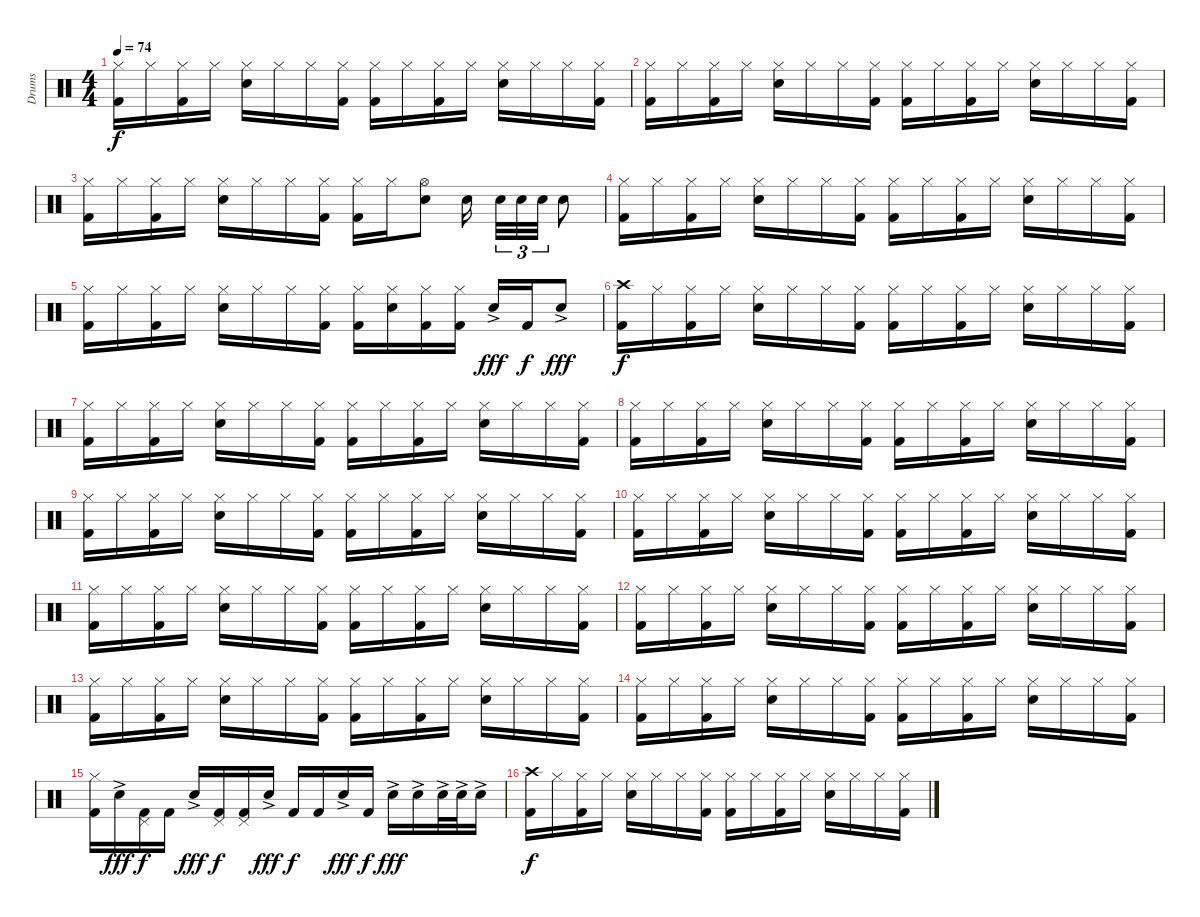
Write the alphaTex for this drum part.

\track ("Drums" "Drums") {instrument percussion}
\staff {score}
\articulation defaults
\ts (4 4)
\tempo 74
\clef neutral
\ks aminor
("Hi-Hat (closed)" "Kick (hit) 2").16{dy f} "Hi-Hat (closed)".16 ("Hi-Hat (closed)" "Kick (hit) 2").16 "Hi-Hat (closed)".16 ("Hi-Hat (closed)" "Snare (hit) 2").16 "Hi-Hat (closed)".16 "Hi-Hat (closed)".16 ("Hi-Hat (closed)" "Kick (hit) 2").16 ("Hi-Hat (closed)" "Kick (hit) 2").16 "Hi-Hat (closed)".16 ("Hi-Hat (closed)" "Kick (hit) 2").16 "Hi-Hat (closed)".16 ("Hi-Hat (closed)" "Snare (hit) 2").16 "Hi-Hat (closed)".16 "Hi-Hat (closed)".16 ("Hi-Hat (closed)" "Kick (hit) 2").16 |
("Hi-Hat (closed)" "Kick (hit) 2").16 "Hi-Hat (closed)".16 ("Hi-Hat (closed)" "Kick (hit) 2").16 "Hi-Hat (closed)".16 ("Hi-Hat (closed)" "Snare (hit) 2").16 "Hi-Hat (closed)".16 "Hi-Hat (closed)".16 ("Hi-Hat (closed)" "Kick (hit) 2").16 ("Hi-Hat (closed)" "Kick (hit) 2").16 "Hi-Hat (closed)".16 ("Hi-Hat (closed)" "Kick (hit) 2").16 "Hi-Hat (closed)".16 ("Hi-Hat (closed)" "Snare (hit) 2").16 "Hi-Hat (closed)".16 "Hi-Hat (closed)".16 ("Hi-Hat (closed)" "Kick (hit) 2").16 |
("Hi-Hat (closed)" "Kick (hit) 2").16 "Hi-Hat (closed)".16 ("Hi-Hat (closed)" "Kick (hit) 2").16 "Hi-Hat (closed)".16 ("Hi-Hat (closed)" "Snare (hit) 2").16 "Hi-Hat (closed)".16 "Hi-Hat (closed)".16 ("Hi-Hat (closed)" "Kick (hit) 2").16 ("Hi-Hat (closed)" "Kick (hit) 2").16 "Hi-Hat (closed)".16 ("Hi-Hat (open)" "Snare (hit) 2").8 "Snare (hit) 2".16 "Snare (hit) 2".32{tu (3 2)} "Snare (hit) 2".32{tu (3 2)} "Snare (hit) 2".32{tu (3 2)} "Snare (hit) 2".8 |
("Hi-Hat (closed)" "Kick (hit) 2").16 "Hi-Hat (closed)".16 ("Hi-Hat (closed)" "Kick (hit) 2").16 "Hi-Hat (closed)".16 ("Hi-Hat (closed)" "Snare (hit) 2").16 "Hi-Hat (closed)".16 "Hi-Hat (closed)".16 ("Hi-Hat (closed)" "Kick (hit) 2").16 ("Hi-Hat (closed)" "Kick (hit) 2").16 "Hi-Hat (closed)".16 ("Hi-Hat (closed)" "Kick (hit) 2").16 "Hi-Hat (closed)".16 ("Hi-Hat (closed)" "Snare (hit) 2").16 "Hi-Hat (closed)".16 "Hi-Hat (closed)".16 ("Hi-Hat (closed)" "Kick (hit) 2").16 |
("Hi-Hat (closed)" "Kick (hit) 2").16 "Hi-Hat (closed)".16 ("Hi-Hat (closed)" "Kick (hit) 2").16 "Hi-Hat (closed)".16 ("Hi-Hat (closed)" "Snare (hit) 2").16 "Hi-Hat (closed)".16 "Hi-Hat (closed)".16 ("Hi-Hat (closed)" "Kick (hit) 2").16 ("Hi-Hat (closed)" "Kick (hit) 2").16 ("Hi-Hat (closed)" "Snare (hit) 2").16 ("Hi-Hat (closed)" "Kick (hit) 2").16 ("Hi-Hat (closed)" "Kick (hit) 2").16 "Snare (hit) 2"{ac}.16{dy fff} "Kick (hit) 2".16{dy f} "Snare (hit) 2"{ac}.8{dy fff} |
("Crash high (hit)" "Kick (hit) 2").16{dy f} "Hi-Hat (closed)".16 ("Hi-Hat (closed)" "Kick (hit) 2").16 "Hi-Hat (closed)".16 ("Hi-Hat (closed)" "Snare (hit) 2").16 "Hi-Hat (closed)".16 "Hi-Hat (closed)".16 ("Hi-Hat (closed)" "Kick (hit) 2").16 ("Hi-Hat (closed)" "Kick (hit) 2").16 "Hi-Hat (closed)".16 ("Hi-Hat (closed)" "Kick (hit) 2").16 "Hi-Hat (closed)".16 ("Hi-Hat (closed)" "Snare (hit) 2").16 "Hi-Hat (closed)".16 "Hi-Hat (closed)".16 ("Hi-Hat (closed)" "Kick (hit) 2").16 |
("Hi-Hat (closed)" "Kick (hit) 2").16 "Hi-Hat (closed)".16 ("Hi-Hat (closed)" "Kick (hit) 2").16 "Hi-Hat (closed)".16 ("Hi-Hat (closed)" "Snare (hit) 2").16 "Hi-Hat (closed)".16 "Hi-Hat (closed)".16 ("Hi-Hat (closed)" "Kick (hit) 2").16 ("Hi-Hat (closed)" "Kick (hit) 2").16 "Hi-Hat (closed)".16 ("Hi-Hat (closed)" "Kick (hit) 2").16 "Hi-Hat (closed)".16 ("Hi-Hat (closed)" "Snare (hit) 2").16 "Hi-Hat (closed)".16 "Hi-Hat (closed)".16 ("Hi-Hat (closed)" "Kick (hit) 2").16 |
("Hi-Hat (closed)" "Kick (hit) 2").16 "Hi-Hat (closed)".16 ("Hi-Hat (closed)" "Kick (hit) 2").16 "Hi-Hat (closed)".16 ("Hi-Hat (closed)" "Snare (hit) 2").16 "Hi-Hat (closed)".16 "Hi-Hat (closed)".16 ("Hi-Hat (closed)" "Kick (hit) 2").16 ("Hi-Hat (closed)" "Kick (hit) 2").16 "Hi-Hat (closed)".16 ("Hi-Hat (closed)" "Kick (hit) 2").16 "Hi-Hat (closed)".16 ("Hi-Hat (closed)" "Snare (hit) 2").16 "Hi-Hat (closed)".16 "Hi-Hat (closed)".16 ("Hi-Hat (closed)" "Kick (hit) 2").16 |
("Hi-Hat (closed)" "Kick (hit) 2").16 "Hi-Hat (closed)".16 ("Hi-Hat (closed)" "Kick (hit) 2").16 "Hi-Hat (closed)".16 ("Hi-Hat (closed)" "Snare (hit) 2").16 "Hi-Hat (closed)".16 "Hi-Hat (closed)".16 ("Hi-Hat (closed)" "Kick (hit) 2").16 ("Hi-Hat (closed)" "Kick (hit) 2").16 "Hi-Hat (closed)".16 ("Hi-Hat (closed)" "Kick (hit) 2").16 "Hi-Hat (closed)".16 ("Hi-Hat (closed)" "Snare (hit) 2").16 "Hi-Hat (closed)".16 "Hi-Hat (closed)".16 ("Hi-Hat (closed)" "Kick (hit) 2").16 |
("Hi-Hat (closed)" "Kick (hit) 2").16 "Hi-Hat (closed)".16 ("Hi-Hat (closed)" "Kick (hit) 2").16 "Hi-Hat (closed)".16 ("Hi-Hat (closed)" "Snare (hit) 2").16 "Hi-Hat (closed)".16 "Hi-Hat (closed)".16 ("Hi-Hat (closed)" "Kick (hit) 2").16 ("Hi-Hat (closed)" "Kick (hit) 2").16 "Hi-Hat (closed)".16 ("Hi-Hat (closed)" "Kick (hit) 2").16 "Hi-Hat (closed)".16 ("Hi-Hat (closed)" "Snare (hit) 2").16 "Hi-Hat (closed)".16 "Hi-Hat (closed)".16 ("Hi-Hat (closed)" "Kick (hit) 2").16 |
("Hi-Hat (closed)" "Kick (hit) 2").16 "Hi-Hat (closed)".16 ("Hi-Hat (closed)" "Kick (hit) 2").16 "Hi-Hat (closed)".16 ("Hi-Hat (closed)" "Snare (hit) 2").16 "Hi-Hat (closed)".16 "Hi-Hat (closed)".16 ("Hi-Hat (closed)" "Kick (hit) 2").16 ("Hi-Hat (closed)" "Kick (hit) 2").16 "Hi-Hat (closed)".16 ("Hi-Hat (closed)" "Kick (hit) 2").16 "Hi-Hat (closed)".16 ("Hi-Hat (closed)" "Snare (hit) 2").16 "Hi-Hat (closed)".16 "Hi-Hat (closed)".16 ("Hi-Hat (closed)" "Kick (hit) 2").16 |
("Hi-Hat (closed)" "Kick (hit) 2").16 "Hi-Hat (closed)".16 ("Hi-Hat (closed)" "Kick (hit) 2").16 "Hi-Hat (closed)".16 ("Hi-Hat (closed)" "Snare (hit) 2").16 "Hi-Hat (closed)".16 "Hi-Hat (closed)".16 ("Hi-Hat (closed)" "Kick (hit) 2").16 ("Hi-Hat (closed)" "Kick (hit) 2").16 "Hi-Hat (closed)".16 ("Hi-Hat (closed)" "Kick (hit) 2").16 "Hi-Hat (closed)".16 ("Hi-Hat (closed)" "Snare (hit) 2").16 "Hi-Hat (closed)".16 "Hi-Hat (closed)".16 ("Hi-Hat (closed)" "Kick (hit) 2").16 |
("Hi-Hat (closed)" "Kick (hit) 2").16 "Hi-Hat (closed)".16 ("Hi-Hat (closed)" "Kick (hit) 2").16 "Hi-Hat (closed)".16 ("Hi-Hat (closed)" "Snare (hit) 2").16 "Hi-Hat (closed)".16 "Hi-Hat (closed)".16 ("Hi-Hat (closed)" "Kick (hit) 2").16 ("Hi-Hat (closed)" "Kick (hit) 2").16 "Hi-Hat (closed)".16 ("Hi-Hat (closed)" "Kick (hit) 2").16 "Hi-Hat (closed)".16 ("Hi-Hat (closed)" "Snare (hit) 2").16 "Hi-Hat (closed)".16 "Hi-Hat (closed)".16 ("Hi-Hat (closed)" "Kick (hit) 2").16 |
("Hi-Hat (closed)" "Kick (hit) 2").16 "Hi-Hat (closed)".16 ("Hi-Hat (closed)" "Kick (hit) 2").16 "Hi-Hat (closed)".16 ("Hi-Hat (closed)" "Snare (hit) 2").16 "Hi-Hat (closed)".16 "Hi-Hat (closed)".16 ("Hi-Hat (closed)" "Kick (hit) 2").16 ("Hi-Hat (closed)" "Kick (hit) 2").16 "Hi-Hat (closed)".16 ("Hi-Hat (closed)" "Kick (hit) 2").16 "Hi-Hat (closed)".16 ("Hi-Hat (closed)" "Snare (hit) 2").16 "Hi-Hat (closed)".16 "Hi-Hat (closed)".16 ("Hi-Hat (closed)" "Kick (hit) 2").16 |
("Hi-Hat (closed)" "Kick (hit) 2").16 "Snare (hit) 2"{ac}.16{dy fff} ("Pedal Hi-Hat (hit)" "Kick (hit) 2").16{dy f} "Kick (hit) 2".16 "Snare (hit) 2"{ac}.16{dy fff} ("Pedal Hi-Hat (hit)" "Kick (hit) 2").16{dy f} ("Pedal Hi-Hat (hit)" "Kick (hit) 2").16 "Snare (hit) 2"{ac}.16{dy fff} "Kick (hit) 2".16{dy f} "Kick (hit) 2".16 "Snare (hit) 2"{ac}.16{dy fff} "Kick (hit) 2".16{dy f} "Snare (hit) 2"{ac}.16{dy fff} "Snare (hit) 2"{ac}.16 "Snare (hit) 2"{ac}.32 "Snare (hit) 2"{ac}.32 "Snare (hit) 2"{ac}.16 |
("Crash high (hit)" "Kick (hit) 2").16{dy f} "Hi-Hat (closed)".16 ("Hi-Hat (closed)" "Kick (hit) 2").16 "Hi-Hat (closed)".16 ("Hi-Hat (closed)" "Snare (hit) 2").16 "Hi-Hat (closed)".16 "Hi-Hat (closed)".16 ("Hi-Hat (closed)" "Kick (hit) 2").16 ("Hi-Hat (closed)" "Kick (hit) 2").16 "Hi-Hat (closed)".16 ("Hi-Hat (closed)" "Kick (hit) 2").16 "Hi-Hat (closed)".16 ("Hi-Hat (closed)" "Snare (hit) 2").16 "Hi-Hat (closed)".16 "Hi-Hat (closed)".16 ("Hi-Hat (closed)" "Kick (hit) 2").16
